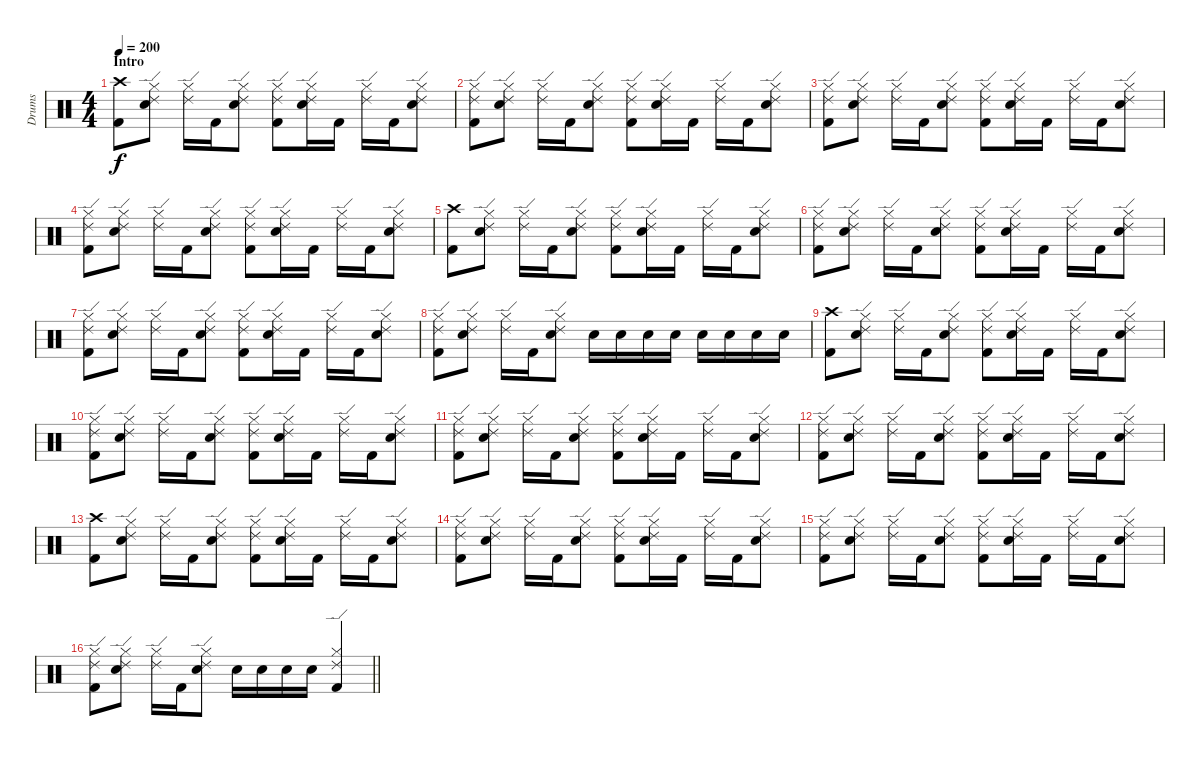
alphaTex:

\track ("Drums" "Drums") {instrument percussion}
\staff {score}
\articulation defaults
\ts (4 4)
\section ("" "Intro")
\tempo 200
\clef neutral
\ks c
("Crash high (hit)" "Kick (hit) 2").8{dy f} ("Hi-Hat (closed)" "Ride (edge) 2" "Electric Snare (hit)").8 ("Hi-Hat (closed)" "Ride (edge) 2").16 "Kick (hit) 2".16 ("Hi-Hat (closed)" "Ride (edge) 2" "Electric Snare (hit)").8 ("Hi-Hat (closed)" "Ride (edge) 2" "Kick (hit) 2").8 ("Hi-Hat (closed)" "Ride (edge) 2" "Electric Snare (hit)").16 "Kick (hit) 2".16 ("Hi-Hat (closed)" "Ride (edge) 2").16 "Kick (hit) 2".16 ("Hi-Hat (closed)" "Ride (edge) 2" "Electric Snare (hit)").8 |
("Hi-Hat (closed)" "Ride (edge) 2" "Kick (hit) 2").8 ("Hi-Hat (closed)" "Ride (edge) 2" "Electric Snare (hit)").8 ("Hi-Hat (closed)" "Ride (edge) 2").16 "Kick (hit) 2".16 ("Hi-Hat (closed)" "Ride (edge) 2" "Electric Snare (hit)").8 ("Hi-Hat (closed)" "Ride (edge) 2" "Kick (hit) 2").8 ("Hi-Hat (closed)" "Ride (edge) 2" "Electric Snare (hit)").16 "Kick (hit) 2".16 ("Hi-Hat (closed)" "Ride (edge) 2").16 "Kick (hit) 2".16 ("Hi-Hat (closed)" "Ride (edge) 2" "Electric Snare (hit)").8 |
("Hi-Hat (closed)" "Ride (edge) 2" "Kick (hit) 2").8 ("Hi-Hat (closed)" "Ride (edge) 2" "Electric Snare (hit)").8 ("Hi-Hat (closed)" "Ride (edge) 2").16 "Kick (hit) 2".16 ("Hi-Hat (closed)" "Ride (edge) 2" "Electric Snare (hit)").8 ("Hi-Hat (closed)" "Ride (edge) 2" "Kick (hit) 2").8 ("Hi-Hat (closed)" "Ride (edge) 2" "Electric Snare (hit)").16 "Kick (hit) 2".16 ("Hi-Hat (closed)" "Ride (edge) 2").16 "Kick (hit) 2".16 ("Hi-Hat (closed)" "Ride (edge) 2" "Electric Snare (hit)").8 |
("Hi-Hat (closed)" "Ride (edge) 2" "Kick (hit) 2").8 ("Hi-Hat (closed)" "Ride (edge) 2" "Electric Snare (hit)").8 ("Hi-Hat (closed)" "Ride (edge) 2").16 "Kick (hit) 2".16 ("Hi-Hat (closed)" "Ride (edge) 2" "Electric Snare (hit)").8 ("Hi-Hat (closed)" "Ride (edge) 2" "Kick (hit) 2").8 ("Hi-Hat (closed)" "Ride (edge) 2" "Electric Snare (hit)").16 "Kick (hit) 2".16 ("Hi-Hat (closed)" "Ride (edge) 2").16 "Kick (hit) 2".16 ("Hi-Hat (closed)" "Ride (edge) 2" "Electric Snare (hit)").8 |
("Crash high (hit)" "Kick (hit) 2").8 ("Hi-Hat (closed)" "Ride (edge) 2" "Electric Snare (hit)").8 ("Hi-Hat (closed)" "Ride (edge) 2").16 "Kick (hit) 2".16 ("Hi-Hat (closed)" "Ride (edge) 2" "Electric Snare (hit)").8 ("Hi-Hat (closed)" "Ride (edge) 2" "Kick (hit) 2").8 ("Hi-Hat (closed)" "Ride (edge) 2" "Electric Snare (hit)").16 "Kick (hit) 2".16 ("Hi-Hat (closed)" "Ride (edge) 2").16 "Kick (hit) 2".16 ("Hi-Hat (closed)" "Ride (edge) 2" "Electric Snare (hit)").8 |
("Hi-Hat (closed)" "Ride (edge) 2" "Kick (hit) 2").8 ("Hi-Hat (closed)" "Ride (edge) 2" "Electric Snare (hit)").8 ("Hi-Hat (closed)" "Ride (edge) 2").16 "Kick (hit) 2".16 ("Hi-Hat (closed)" "Ride (edge) 2" "Electric Snare (hit)").8 ("Hi-Hat (closed)" "Ride (edge) 2" "Kick (hit) 2").8 ("Hi-Hat (closed)" "Ride (edge) 2" "Electric Snare (hit)").16 "Kick (hit) 2".16 ("Hi-Hat (closed)" "Ride (edge) 2").16 "Kick (hit) 2".16 ("Hi-Hat (closed)" "Ride (edge) 2" "Electric Snare (hit)").8 |
("Hi-Hat (closed)" "Ride (edge) 2" "Kick (hit) 2").8 ("Hi-Hat (closed)" "Ride (edge) 2" "Electric Snare (hit)").8 ("Hi-Hat (closed)" "Ride (edge) 2").16 "Kick (hit) 2".16 ("Hi-Hat (closed)" "Ride (edge) 2" "Electric Snare (hit)").8 ("Hi-Hat (closed)" "Ride (edge) 2" "Kick (hit) 2").8 ("Hi-Hat (closed)" "Ride (edge) 2" "Electric Snare (hit)").16 "Kick (hit) 2".16 ("Hi-Hat (closed)" "Ride (edge) 2").16 "Kick (hit) 2".16 ("Hi-Hat (closed)" "Ride (edge) 2" "Electric Snare (hit)").8 |
("Hi-Hat (closed)" "Ride (edge) 2" "Kick (hit) 2").8 ("Hi-Hat (closed)" "Ride (edge) 2" "Electric Snare (hit)").8 ("Hi-Hat (closed)" "Ride (edge) 2").16 "Kick (hit) 2".16 ("Hi-Hat (closed)" "Ride (edge) 2" "Electric Snare (hit)").8 "Electric Snare (hit)".16 "Electric Snare (hit)".16 "Electric Snare (hit)".16 "Electric Snare (hit)".16 "Electric Snare (hit)".16 "Electric Snare (hit)".16 "Electric Snare (hit)".16 "Electric Snare (hit)".16 |
("Crash high (hit)" "Kick (hit) 2").8 ("Hi-Hat (closed)" "Ride (edge) 2" "Electric Snare (hit)").8 ("Hi-Hat (closed)" "Ride (edge) 2").16 "Kick (hit) 2".16 ("Hi-Hat (closed)" "Ride (edge) 2" "Electric Snare (hit)").8 ("Hi-Hat (closed)" "Ride (edge) 2" "Kick (hit) 2").8 ("Hi-Hat (closed)" "Ride (edge) 2" "Electric Snare (hit)").16 "Kick (hit) 2".16 ("Hi-Hat (closed)" "Ride (edge) 2").16 "Kick (hit) 2".16 ("Hi-Hat (closed)" "Ride (edge) 2" "Electric Snare (hit)").8 |
("Hi-Hat (closed)" "Ride (edge) 2" "Kick (hit) 2").8 ("Hi-Hat (closed)" "Ride (edge) 2" "Electric Snare (hit)").8 ("Hi-Hat (closed)" "Ride (edge) 2").16 "Kick (hit) 2".16 ("Hi-Hat (closed)" "Ride (edge) 2" "Electric Snare (hit)").8 ("Hi-Hat (closed)" "Ride (edge) 2" "Kick (hit) 2").8 ("Hi-Hat (closed)" "Ride (edge) 2" "Electric Snare (hit)").16 "Kick (hit) 2".16 ("Hi-Hat (closed)" "Ride (edge) 2").16 "Kick (hit) 2".16 ("Hi-Hat (closed)" "Ride (edge) 2" "Electric Snare (hit)").8 |
("Hi-Hat (closed)" "Ride (edge) 2" "Kick (hit) 2").8 ("Hi-Hat (closed)" "Ride (edge) 2" "Electric Snare (hit)").8 ("Hi-Hat (closed)" "Ride (edge) 2").16 "Kick (hit) 2".16 ("Hi-Hat (closed)" "Ride (edge) 2" "Electric Snare (hit)").8 ("Hi-Hat (closed)" "Ride (edge) 2" "Kick (hit) 2").8 ("Hi-Hat (closed)" "Ride (edge) 2" "Electric Snare (hit)").16 "Kick (hit) 2".16 ("Hi-Hat (closed)" "Ride (edge) 2").16 "Kick (hit) 2".16 ("Hi-Hat (closed)" "Ride (edge) 2" "Electric Snare (hit)").8 |
("Hi-Hat (closed)" "Ride (edge) 2" "Kick (hit) 2").8 ("Hi-Hat (closed)" "Ride (edge) 2" "Electric Snare (hit)").8 ("Hi-Hat (closed)" "Ride (edge) 2").16 "Kick (hit) 2".16 ("Hi-Hat (closed)" "Ride (edge) 2" "Electric Snare (hit)").8 ("Hi-Hat (closed)" "Ride (edge) 2" "Kick (hit) 2").8 ("Hi-Hat (closed)" "Ride (edge) 2" "Electric Snare (hit)").16 "Kick (hit) 2".16 ("Hi-Hat (closed)" "Ride (edge) 2").16 "Kick (hit) 2".16 ("Hi-Hat (closed)" "Ride (edge) 2" "Electric Snare (hit)").8 |
("Crash high (hit)" "Kick (hit) 2").8 ("Hi-Hat (closed)" "Ride (edge) 2" "Electric Snare (hit)").8 ("Hi-Hat (closed)" "Ride (edge) 2").16 "Kick (hit) 2".16 ("Hi-Hat (closed)" "Ride (edge) 2" "Electric Snare (hit)").8 ("Hi-Hat (closed)" "Ride (edge) 2" "Kick (hit) 2").8 ("Hi-Hat (closed)" "Ride (edge) 2" "Electric Snare (hit)").16 "Kick (hit) 2".16 ("Hi-Hat (closed)" "Ride (edge) 2").16 "Kick (hit) 2".16 ("Hi-Hat (closed)" "Ride (edge) 2" "Electric Snare (hit)").8 |
("Hi-Hat (closed)" "Ride (edge) 2" "Kick (hit) 2").8 ("Hi-Hat (closed)" "Ride (edge) 2" "Electric Snare (hit)").8 ("Hi-Hat (closed)" "Ride (edge) 2").16 "Kick (hit) 2".16 ("Hi-Hat (closed)" "Ride (edge) 2" "Electric Snare (hit)").8 ("Hi-Hat (closed)" "Ride (edge) 2" "Kick (hit) 2").8 ("Hi-Hat (closed)" "Ride (edge) 2" "Electric Snare (hit)").16 "Kick (hit) 2".16 ("Hi-Hat (closed)" "Ride (edge) 2").16 "Kick (hit) 2".16 ("Hi-Hat (closed)" "Ride (edge) 2" "Electric Snare (hit)").8 |
("Hi-Hat (closed)" "Ride (edge) 2" "Kick (hit) 2").8 ("Hi-Hat (closed)" "Ride (edge) 2" "Electric Snare (hit)").8 ("Hi-Hat (closed)" "Ride (edge) 2").16 "Kick (hit) 2".16 ("Hi-Hat (closed)" "Ride (edge) 2" "Electric Snare (hit)").8 ("Hi-Hat (closed)" "Ride (edge) 2" "Kick (hit) 2").8 ("Hi-Hat (closed)" "Ride (edge) 2" "Electric Snare (hit)").16 "Kick (hit) 2".16 ("Hi-Hat (closed)" "Ride (edge) 2").16 "Kick (hit) 2".16 ("Hi-Hat (closed)" "Ride (edge) 2" "Electric Snare (hit)").8 |
\barLineRight lightlight
("Hi-Hat (closed)" "Ride (edge) 2" "Kick (hit) 2").8 ("Hi-Hat (closed)" "Ride (edge) 2" "Electric Snare (hit)").8 ("Hi-Hat (closed)" "Ride (edge) 2").16 "Kick (hit) 2".16 ("Hi-Hat (closed)" "Ride (edge) 2" "Electric Snare (hit)").8 "Electric Snare (hit)".16 "Electric Snare (hit)".16 "Electric Snare (hit)".16 "Electric Snare (hit)".16 ("Hi-Hat (closed)" "Ride (edge) 2" "Kick (hit) 2").4
